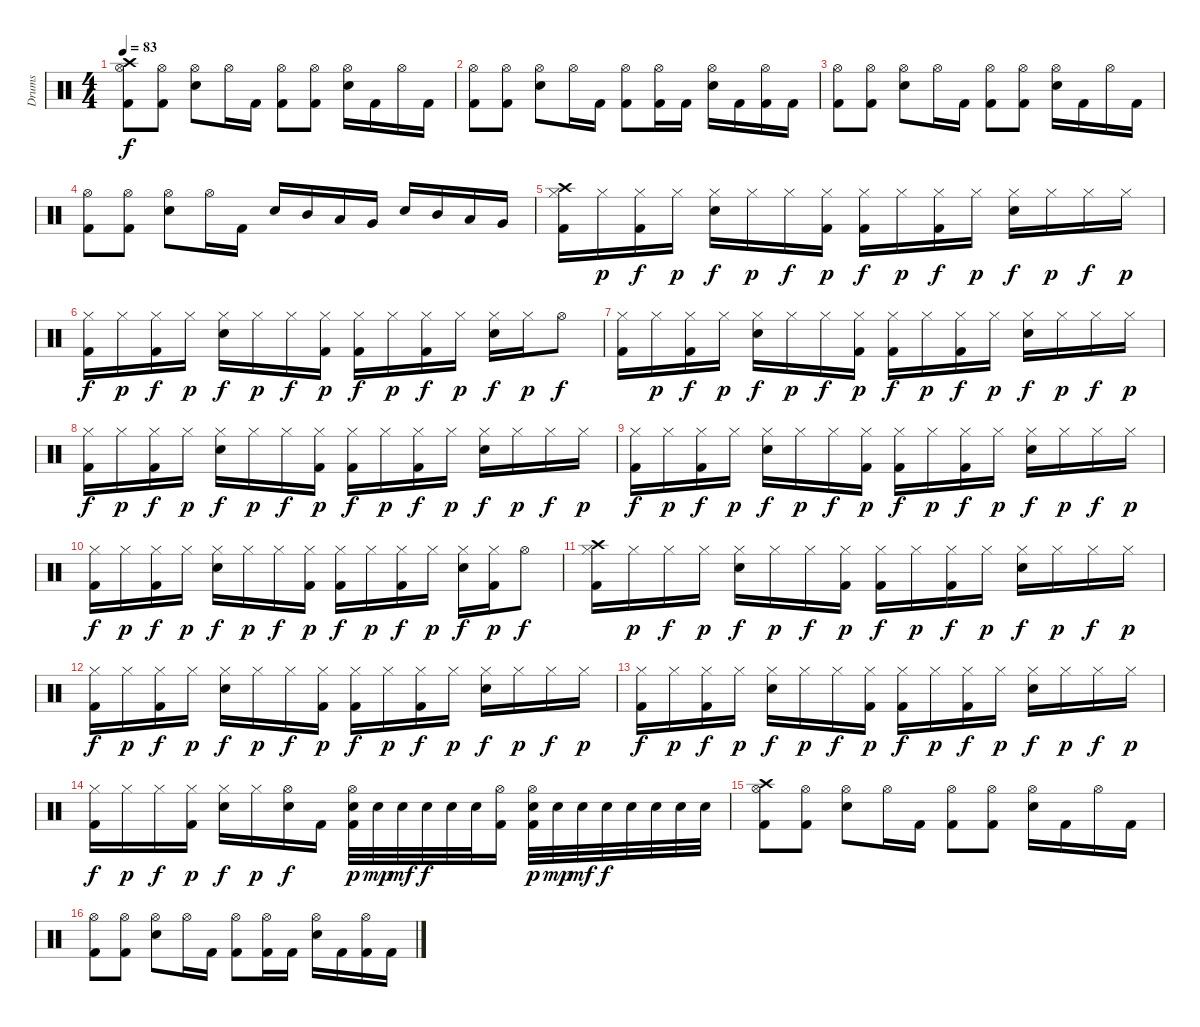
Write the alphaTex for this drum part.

\track ("Drums" "Drums") {instrument percussion}
\staff {score}
\articulation defaults
\ts (4 4)
\tempo 83
\clef neutral
\ks c
("Crash high (hit)" "Hi-Hat (open)" "Kick (hit) 2").8{dy f} ("Hi-Hat (open)" "Kick (hit) 2").8 ("Hi-Hat (open)" "Electric Snare (hit)").8 "Hi-Hat (open)".16 "Kick (hit) 2".16 ("Hi-Hat (open)" "Kick (hit) 2").8 ("Hi-Hat (open)" "Kick (hit) 2").8 ("Hi-Hat (open)" "Electric Snare (hit)").16 "Kick (hit) 2".16 "Hi-Hat (open)".16 "Kick (hit) 2".16 |
("Hi-Hat (open)" "Kick (hit) 2").8 ("Hi-Hat (open)" "Kick (hit) 2").8 ("Hi-Hat (open)" "Electric Snare (hit)").8 "Hi-Hat (open)".16 "Kick (hit) 2".16 ("Hi-Hat (open)" "Kick (hit) 2").8 ("Hi-Hat (open)" "Kick (hit) 2").16 "Kick (hit) 2".16 ("Hi-Hat (open)" "Electric Snare (hit)").16 "Kick (hit) 2".16 ("Hi-Hat (open)" "Kick (hit) 2").16 "Kick (hit) 2".16 |
("Hi-Hat (open)" "Kick (hit) 2").8 ("Hi-Hat (open)" "Kick (hit) 2").8 ("Hi-Hat (open)" "Electric Snare (hit)").8 "Hi-Hat (open)".16 "Kick (hit) 2".16 ("Hi-Hat (open)" "Kick (hit) 2").8 ("Hi-Hat (open)" "Kick (hit) 2").8 ("Hi-Hat (open)" "Electric Snare (hit)").16 "Kick (hit) 2".16 "Hi-Hat (open)".16 "Kick (hit) 2".16 |
("Hi-Hat (open)" "Kick (hit) 2").8 ("Hi-Hat (open)" "Kick (hit) 2").8 ("Hi-Hat (open)" "Electric Snare (hit)").8 "Hi-Hat (open)".16 "Kick (hit) 2".16 "Electric Snare (hit)".16 "Mid Tom (hit)".16 "Low Tom (hit)".16 "Very Low Tom (hit)".16 "Electric Snare (hit)".16 "Mid Tom (hit)".16 "Low Tom (hit)".16 "Very Low Tom (hit)".16 |
("Crash high (hit)" "Hi-Hat (closed)" "Kick (hit) 2").16 "Hi-Hat (closed)".16{dy p} ("Hi-Hat (closed)" "Kick (hit) 2").16{dy f} "Hi-Hat (closed)".16{dy p} ("Hi-Hat (closed)" "Electric Snare (hit)").16{dy f} "Hi-Hat (closed)".16{dy p} "Hi-Hat (closed)".16{dy f} ("Hi-Hat (closed)" "Kick (hit) 2").16{dy p} ("Hi-Hat (closed)" "Kick (hit) 2").16{dy f} "Hi-Hat (closed)".16{dy p} ("Hi-Hat (closed)" "Kick (hit) 2").16{dy f} "Hi-Hat (closed)".16{dy p} ("Hi-Hat (closed)" "Electric Snare (hit)").16{dy f} "Hi-Hat (closed)".16{dy p} "Hi-Hat (closed)".16{dy f} "Hi-Hat (closed)".16{dy p} |
("Hi-Hat (closed)" "Kick (hit) 2").16{dy f} "Hi-Hat (closed)".16{dy p} ("Hi-Hat (closed)" "Kick (hit) 2").16{dy f} "Hi-Hat (closed)".16{dy p} ("Hi-Hat (closed)" "Electric Snare (hit)").16{dy f} "Hi-Hat (closed)".16{dy p} "Hi-Hat (closed)".16{dy f} ("Hi-Hat (closed)" "Kick (hit) 2").16{dy p} ("Hi-Hat (closed)" "Kick (hit) 2").16{dy f} "Hi-Hat (closed)".16{dy p} ("Hi-Hat (closed)" "Kick (hit) 2").16{dy f} "Hi-Hat (closed)".16{dy p} ("Hi-Hat (closed)" "Electric Snare (hit)").16{dy f} "Hi-Hat (closed)".16{dy p} "Hi-Hat (open)".8{dy f} |
("Hi-Hat (closed)" "Kick (hit) 2").16 "Hi-Hat (closed)".16{dy p} ("Hi-Hat (closed)" "Kick (hit) 2").16{dy f} "Hi-Hat (closed)".16{dy p} ("Hi-Hat (closed)" "Electric Snare (hit)").16{dy f} "Hi-Hat (closed)".16{dy p} "Hi-Hat (closed)".16{dy f} ("Hi-Hat (closed)" "Kick (hit) 2").16{dy p} ("Hi-Hat (closed)" "Kick (hit) 2").16{dy f} "Hi-Hat (closed)".16{dy p} ("Hi-Hat (closed)" "Kick (hit) 2").16{dy f} "Hi-Hat (closed)".16{dy p} ("Hi-Hat (closed)" "Electric Snare (hit)").16{dy f} "Hi-Hat (closed)".16{dy p} "Hi-Hat (closed)".16{dy f} "Hi-Hat (closed)".16{dy p} |
("Hi-Hat (closed)" "Kick (hit) 2").16{dy f} "Hi-Hat (closed)".16{dy p} ("Hi-Hat (closed)" "Kick (hit) 2").16{dy f} "Hi-Hat (closed)".16{dy p} ("Hi-Hat (closed)" "Electric Snare (hit)").16{dy f} "Hi-Hat (closed)".16{dy p} "Hi-Hat (closed)".16{dy f} ("Hi-Hat (closed)" "Kick (hit) 2").16{dy p} ("Hi-Hat (closed)" "Kick (hit) 2").16{dy f} "Hi-Hat (closed)".16{dy p} ("Hi-Hat (closed)" "Kick (hit) 2").16{dy f} "Hi-Hat (closed)".16{dy p} ("Hi-Hat (closed)" "Electric Snare (hit)").16{dy f} "Hi-Hat (closed)".16{dy p} "Hi-Hat (closed)".16{dy f} "Hi-Hat (closed)".16{dy p} |
("Hi-Hat (closed)" "Kick (hit) 2").16{dy f} "Hi-Hat (closed)".16{dy p} ("Hi-Hat (closed)" "Kick (hit) 2").16{dy f} "Hi-Hat (closed)".16{dy p} ("Hi-Hat (closed)" "Electric Snare (hit)").16{dy f} "Hi-Hat (closed)".16{dy p} "Hi-Hat (closed)".16{dy f} ("Hi-Hat (closed)" "Kick (hit) 2").16{dy p} ("Hi-Hat (closed)" "Kick (hit) 2").16{dy f} "Hi-Hat (closed)".16{dy p} ("Hi-Hat (closed)" "Kick (hit) 2").16{dy f} "Hi-Hat (closed)".16{dy p} ("Hi-Hat (closed)" "Electric Snare (hit)").16{dy f} "Hi-Hat (closed)".16{dy p} "Hi-Hat (closed)".16{dy f} "Hi-Hat (closed)".16{dy p} |
("Hi-Hat (closed)" "Kick (hit) 2").16{dy f} "Hi-Hat (closed)".16{dy p} ("Hi-Hat (closed)" "Kick (hit) 2").16{dy f} "Hi-Hat (closed)".16{dy p} ("Hi-Hat (closed)" "Electric Snare (hit)").16{dy f} "Hi-Hat (closed)".16{dy p} "Hi-Hat (closed)".16{dy f} ("Hi-Hat (closed)" "Kick (hit) 2").16{dy p} ("Hi-Hat (closed)" "Kick (hit) 2").16{dy f} "Hi-Hat (closed)".16{dy p} ("Hi-Hat (closed)" "Kick (hit) 2").16{dy f} "Hi-Hat (closed)".16{dy p} ("Hi-Hat (closed)" "Electric Snare (hit)").16{dy f} ("Hi-Hat (closed)" "Kick (hit) 2").16{dy p} "Hi-Hat (open)".8{dy f} |
("Crash high (hit)" "Hi-Hat (closed)" "Kick (hit) 2").16 "Hi-Hat (closed)".16{dy p} "Hi-Hat (closed)".16{dy f} "Hi-Hat (closed)".16{dy p} ("Hi-Hat (closed)" "Electric Snare (hit)").16{dy f} "Hi-Hat (closed)".16{dy p} "Hi-Hat (closed)".16{dy f} ("Hi-Hat (closed)" "Kick (hit) 2").16{dy p} ("Hi-Hat (closed)" "Kick (hit) 2").16{dy f} "Hi-Hat (closed)".16{dy p} ("Hi-Hat (closed)" "Kick (hit) 2").16{dy f} "Hi-Hat (closed)".16{dy p} ("Hi-Hat (closed)" "Electric Snare (hit)").16{dy f} "Hi-Hat (closed)".16{dy p} "Hi-Hat (closed)".16{dy f} "Hi-Hat (closed)".16{dy p} |
("Hi-Hat (closed)" "Kick (hit) 2").16{dy f} "Hi-Hat (closed)".16{dy p} ("Hi-Hat (closed)" "Kick (hit) 2").16{dy f} "Hi-Hat (closed)".16{dy p} ("Hi-Hat (closed)" "Electric Snare (hit)").16{dy f} "Hi-Hat (closed)".16{dy p} "Hi-Hat (closed)".16{dy f} ("Hi-Hat (closed)" "Kick (hit) 2").16{dy p} ("Hi-Hat (closed)" "Kick (hit) 2").16{dy f} "Hi-Hat (closed)".16{dy p} ("Hi-Hat (closed)" "Kick (hit) 2").16{dy f} "Hi-Hat (closed)".16{dy p} ("Hi-Hat (closed)" "Electric Snare (hit)").16{dy f} "Hi-Hat (closed)".16{dy p} "Hi-Hat (closed)".16{dy f} "Hi-Hat (closed)".16{dy p} |
("Hi-Hat (closed)" "Kick (hit) 2").16{dy f} "Hi-Hat (closed)".16{dy p} ("Hi-Hat (closed)" "Kick (hit) 2").16{dy f} "Hi-Hat (closed)".16{dy p} ("Hi-Hat (closed)" "Electric Snare (hit)").16{dy f} "Hi-Hat (closed)".16{dy p} "Hi-Hat (closed)".16{dy f} ("Hi-Hat (closed)" "Kick (hit) 2").16{dy p} ("Hi-Hat (closed)" "Kick (hit) 2").16{dy f} "Hi-Hat (closed)".16{dy p} ("Hi-Hat (closed)" "Kick (hit) 2").16{dy f} "Hi-Hat (closed)".16{dy p} ("Hi-Hat (closed)" "Electric Snare (hit)").16{dy f} "Hi-Hat (closed)".16{dy p} "Hi-Hat (closed)".16{dy f} "Hi-Hat (closed)".16{dy p} |
("Hi-Hat (closed)" "Kick (hit) 2").16{dy f} "Hi-Hat (closed)".16{dy p} "Hi-Hat (closed)".16{dy f} ("Hi-Hat (closed)" "Kick (hit) 2").16{dy p} ("Hi-Hat (closed)" "Electric Snare (hit)").16{dy f} "Hi-Hat (closed)".16{dy p} ("Hi-Hat (open)" "Electric Snare (hit)").16{dy f} "Kick (hit) 2".16 ("Hi-Hat (open)" "Electric Snare (hit)" "Kick (hit) 2").32{dy p} "Electric Snare (hit)".32{dy mp} "Electric Snare (hit)".32{dy mf} "Electric Snare (hit)".32{dy f} "Electric Snare (hit)".32 "Electric Snare (hit)".32 ("Hi-Hat (open)" "Kick (hit) 2").16 ("Hi-Hat (open)" "Electric Snare (hit)" "Kick (hit) 2").32{dy p} "Electric Snare (hit)".32{dy mp} "Electric Snare (hit)".32{dy mf} "Electric Snare (hit)".32{dy f} "Electric Snare (hit)".32 "Electric Snare (hit)".32 "Electric Snare (hit)".32 "Electric Snare (hit)".32 |
("Crash high (hit)" "Hi-Hat (open)" "Kick (hit) 2").8 ("Hi-Hat (open)" "Kick (hit) 2").8 ("Hi-Hat (open)" "Electric Snare (hit)").8 "Hi-Hat (open)".16 "Kick (hit) 2".16 ("Hi-Hat (open)" "Kick (hit) 2").8 ("Hi-Hat (open)" "Kick (hit) 2").8 ("Hi-Hat (open)" "Electric Snare (hit)").16 "Kick (hit) 2".16 "Hi-Hat (open)".16 "Kick (hit) 2".16 |
("Hi-Hat (open)" "Kick (hit) 2").8 ("Hi-Hat (open)" "Kick (hit) 2").8 ("Hi-Hat (open)" "Electric Snare (hit)").8 "Hi-Hat (open)".16 "Kick (hit) 2".16 ("Hi-Hat (open)" "Kick (hit) 2").8 ("Hi-Hat (open)" "Kick (hit) 2").16 "Kick (hit) 2".16 ("Hi-Hat (open)" "Electric Snare (hit)").16 "Kick (hit) 2".16 ("Hi-Hat (open)" "Kick (hit) 2").16 "Kick (hit) 2".16
